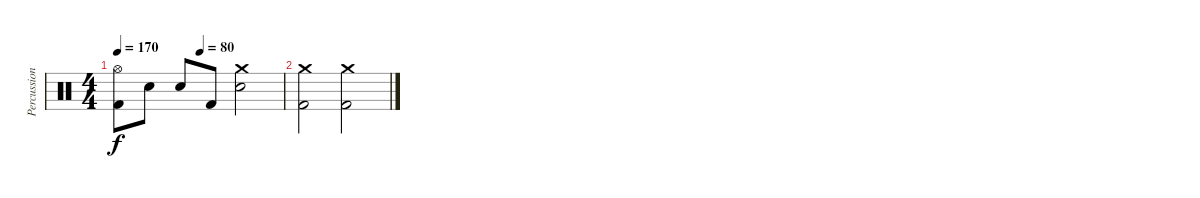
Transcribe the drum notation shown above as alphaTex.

\track ("Percussion" "Percussion") {instrument percussion}
\staff {score}
\articulation defaults
\ts (4 4)
\tempo 170
\tempo (80 0.5)
\clef neutral
\ks c
("Hi-Hat (open)" "Kick (hit) 2").8{dy f} "Electric Snare (hit)".8 "Electric Snare (hit)".8 "Kick (hit) 2".8 ("Crash medium (hit)" "Electric Snare (hit)").2 |
("Crash medium (hit)" "Kick (hit) 2").2 ("Crash medium (hit)" "Kick (hit) 2").2
